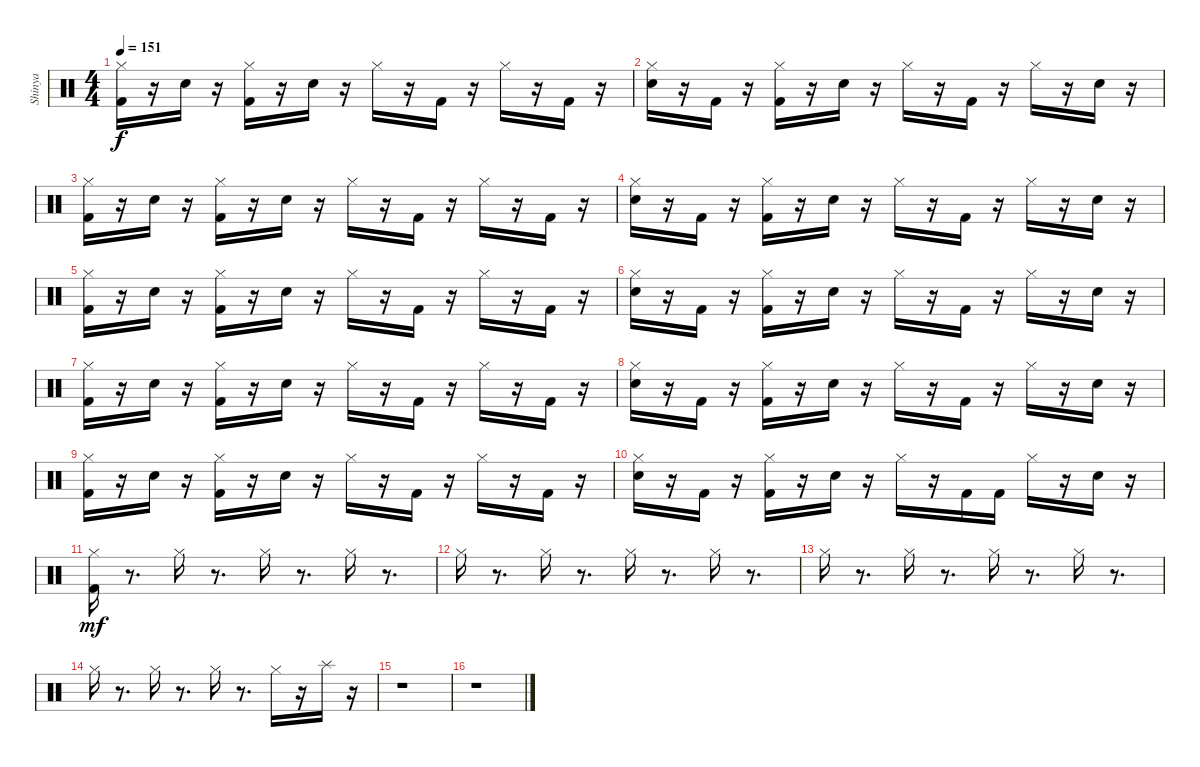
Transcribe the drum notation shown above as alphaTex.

\track ("Shinya" "Shinya") {instrument percussion}
\staff {score}
\articulation defaults
\ts (4 4)
\tempo 151
\clef neutral
\ks c
("Hi-Hat (closed)" "Kick (hit) 2").16{dy f} r.16 "Snare (hit) 2".16 r.16 ("Hi-Hat (closed)" "Kick (hit) 2").16 r.16 "Snare (hit) 2".16 r.16 "Hi-Hat (closed)".16 r.16 "Kick (hit) 2".16 r.16 "Hi-Hat (closed)".16 r.16 "Kick (hit) 2".16 r.16 |
("Snare (hit) 2" "Hi-Hat (closed)").16 r.16 "Kick (hit) 2".16 r.16 ("Kick (hit) 2" "Hi-Hat (closed)").16 r.16 "Snare (hit) 2".16 r.16 "Hi-Hat (closed)".16 r.16 "Kick (hit) 2".16 r.16 "Hi-Hat (closed)".16 r.16 "Snare (hit) 2".16 r.16 |
("Hi-Hat (closed)" "Kick (hit) 2").16 r.16 "Snare (hit) 2".16 r.16 ("Hi-Hat (closed)" "Kick (hit) 2").16 r.16 "Snare (hit) 2".16 r.16 "Hi-Hat (closed)".16 r.16 "Kick (hit) 2".16 r.16 "Hi-Hat (closed)".16 r.16 "Kick (hit) 2".16 r.16 |
("Snare (hit) 2" "Hi-Hat (closed)").16 r.16 "Kick (hit) 2".16 r.16 ("Kick (hit) 2" "Hi-Hat (closed)").16 r.16 "Snare (hit) 2".16 r.16 "Hi-Hat (closed)".16 r.16 "Kick (hit) 2".16 r.16 "Hi-Hat (closed)".16 r.16 "Snare (hit) 2".16 r.16 |
("Hi-Hat (closed)" "Kick (hit) 2").16 r.16 "Snare (hit) 2".16 r.16 ("Hi-Hat (closed)" "Kick (hit) 2").16 r.16 "Snare (hit) 2".16 r.16 "Hi-Hat (closed)".16 r.16 "Kick (hit) 2".16 r.16 "Hi-Hat (closed)".16 r.16 "Kick (hit) 2".16 r.16 |
("Snare (hit) 2" "Hi-Hat (closed)").16 r.16 "Kick (hit) 2".16 r.16 ("Kick (hit) 2" "Hi-Hat (closed)").16 r.16 "Snare (hit) 2".16 r.16 "Hi-Hat (closed)".16 r.16 "Kick (hit) 2".16 r.16 "Hi-Hat (closed)".16 r.16 "Snare (hit) 2".16 r.16 |
("Hi-Hat (closed)" "Kick (hit) 2").16 r.16 "Snare (hit) 2".16 r.16 ("Hi-Hat (closed)" "Kick (hit) 2").16 r.16 "Snare (hit) 2".16 r.16 "Hi-Hat (closed)".16 r.16 "Kick (hit) 2".16 r.16 "Hi-Hat (closed)".16 r.16 "Kick (hit) 2".16 r.16 |
("Snare (hit) 2" "Hi-Hat (closed)").16 r.16 "Kick (hit) 2".16 r.16 ("Kick (hit) 2" "Hi-Hat (closed)").16 r.16 "Snare (hit) 2".16 r.16 "Hi-Hat (closed)".16 r.16 "Kick (hit) 2".16 r.16 "Hi-Hat (closed)".16 r.16 "Snare (hit) 2".16 r.16 |
("Hi-Hat (closed)" "Kick (hit) 2").16 r.16 "Snare (hit) 2".16 r.16 ("Hi-Hat (closed)" "Kick (hit) 2").16 r.16 "Snare (hit) 2".16 r.16 "Hi-Hat (closed)".16 r.16 "Kick (hit) 2".16 r.16 "Hi-Hat (closed)".16 r.16 "Kick (hit) 2".16 r.16 |
("Snare (hit) 2" "Hi-Hat (closed)").16 r.16 "Kick (hit) 2".16 r.16 ("Kick (hit) 2" "Hi-Hat (closed)").16 r.16 "Snare (hit) 2".16 r.16 "Hi-Hat (closed)".16 r.16 "Kick (hit) 2".16 "Kick (hit) 2".16 "Hi-Hat (closed)".16 r.16 "Snare (hit) 2".16 r.16 |
("Hi-Hat (closed)" "Kick (hit) 2").16{dy mf} r.8{d} "Hi-Hat (closed)".16 r.8{d} "Hi-Hat (closed)".16 r.8{d} "Hi-Hat (closed)".16 r.8{d} |
"Hi-Hat (closed)".16 r.8{d} "Hi-Hat (closed)".16 r.8{d} "Hi-Hat (closed)".16 r.8{d} "Hi-Hat (closed)".16 r.8{d} |
"Hi-Hat (closed)".16 r.8{d} "Hi-Hat (closed)".16 r.8{d} "Hi-Hat (closed)".16 r.8{d} "Hi-Hat (closed)".16 r.8{d} |
"Hi-Hat (closed)".16 r.8{d} "Hi-Hat (closed)".16 r.8{d} "Hi-Hat (closed)".16 r.8{d} "Hi-Hat (closed)".16 r.16 "Splash (hit)".16 r.16 |
r.1 |
r.1
